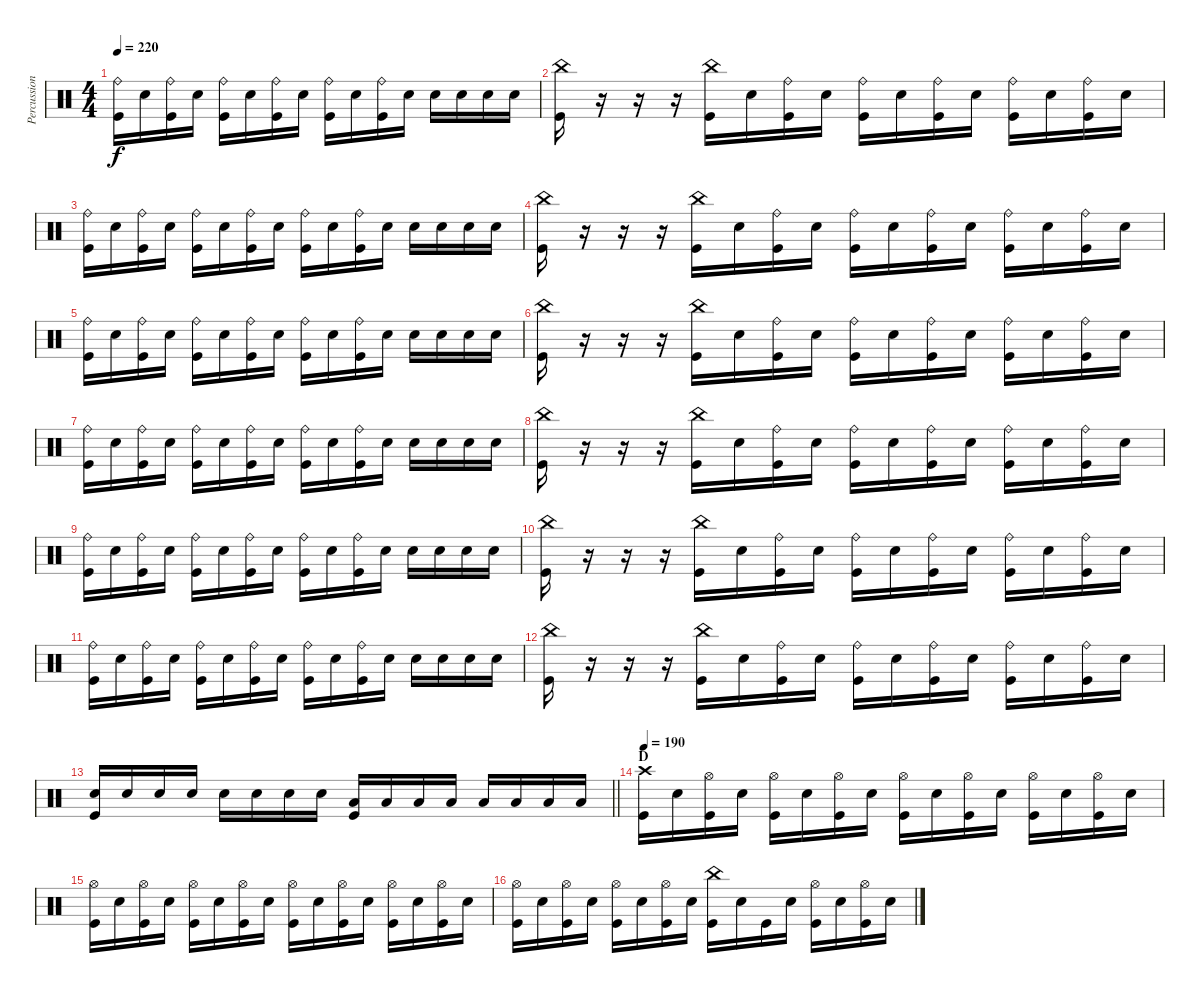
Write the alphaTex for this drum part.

\track ("Percussion" "Percussion") {instrument percussion}
\staff {score}
\articulation defaults
\ts (4 4)
\tempo 220
\clef neutral
\ks c
("Ride (bell)" "Kick (hit)").16{dy f} "Snare (hit) 2".16 ("Ride (bell)" "Kick (hit)").16 "Snare (hit) 2".16 ("Ride (bell)" "Kick (hit)").16 "Snare (hit) 2".16 ("Ride (bell)" "Kick (hit)").16 "Snare (hit) 2".16 ("Ride (bell)" "Kick (hit)").16 "Snare (hit) 2".16 ("Ride (bell)" "Kick (hit)").16 "Snare (hit) 2".16 "Snare (hit) 2".16 "Snare (hit) 2".16 "Snare (hit) 2".16 "Snare (hit) 2".16 |
("China (hit)" "Kick (hit)").16 r.16 r.16 r.16 ("China (hit)" "Kick (hit)").16 "Snare (hit) 2".16 ("Ride (bell)" "Kick (hit)").16 "Snare (hit) 2".16 ("Ride (bell)" "Kick (hit)").16 "Snare (hit) 2".16 ("Ride (bell)" "Kick (hit)").16 "Snare (hit) 2".16 ("Ride (bell)" "Kick (hit)").16 "Snare (hit) 2".16 ("Ride (bell)" "Kick (hit)").16 "Snare (hit) 2".16 |
("Ride (bell)" "Kick (hit)").16 "Snare (hit) 2".16 ("Ride (bell)" "Kick (hit)").16 "Snare (hit) 2".16 ("Ride (bell)" "Kick (hit)").16 "Snare (hit) 2".16 ("Ride (bell)" "Kick (hit)").16 "Snare (hit) 2".16 ("Ride (bell)" "Kick (hit)").16 "Snare (hit) 2".16 ("Ride (bell)" "Kick (hit)").16 "Snare (hit) 2".16 "Snare (hit) 2".16 "Snare (hit) 2".16 "Snare (hit) 2".16 "Snare (hit) 2".16 |
("China (hit)" "Kick (hit)").16 r.16 r.16 r.16 ("China (hit)" "Kick (hit)").16 "Snare (hit) 2".16 ("Ride (bell)" "Kick (hit)").16 "Snare (hit) 2".16 ("Ride (bell)" "Kick (hit)").16 "Snare (hit) 2".16 ("Ride (bell)" "Kick (hit)").16 "Snare (hit) 2".16 ("Ride (bell)" "Kick (hit)").16 "Snare (hit) 2".16 ("Ride (bell)" "Kick (hit)").16 "Snare (hit) 2".16 |
("Ride (bell)" "Kick (hit)").16 "Snare (hit) 2".16 ("Ride (bell)" "Kick (hit)").16 "Snare (hit) 2".16 ("Ride (bell)" "Kick (hit)").16 "Snare (hit) 2".16 ("Ride (bell)" "Kick (hit)").16 "Snare (hit) 2".16 ("Ride (bell)" "Kick (hit)").16 "Snare (hit) 2".16 ("Ride (bell)" "Kick (hit)").16 "Snare (hit) 2".16 "Snare (hit) 2".16 "Snare (hit) 2".16 "Snare (hit) 2".16 "Snare (hit) 2".16 |
("China (hit)" "Kick (hit)").16 r.16 r.16 r.16 ("China (hit)" "Kick (hit)").16 "Snare (hit) 2".16 ("Ride (bell)" "Kick (hit)").16 "Snare (hit) 2".16 ("Ride (bell)" "Kick (hit)").16 "Snare (hit) 2".16 ("Ride (bell)" "Kick (hit)").16 "Snare (hit) 2".16 ("Ride (bell)" "Kick (hit)").16 "Snare (hit) 2".16 ("Ride (bell)" "Kick (hit)").16 "Snare (hit) 2".16 |
("Ride (bell)" "Kick (hit)").16 "Snare (hit) 2".16 ("Ride (bell)" "Kick (hit)").16 "Snare (hit) 2".16 ("Ride (bell)" "Kick (hit)").16 "Snare (hit) 2".16 ("Ride (bell)" "Kick (hit)").16 "Snare (hit) 2".16 ("Ride (bell)" "Kick (hit)").16 "Snare (hit) 2".16 ("Ride (bell)" "Kick (hit)").16 "Snare (hit) 2".16 "Snare (hit) 2".16 "Snare (hit) 2".16 "Snare (hit) 2".16 "Snare (hit) 2".16 |
("China (hit)" "Kick (hit)").16 r.16 r.16 r.16 ("China (hit)" "Kick (hit)").16 "Snare (hit) 2".16 ("Ride (bell)" "Kick (hit)").16 "Snare (hit) 2".16 ("Ride (bell)" "Kick (hit)").16 "Snare (hit) 2".16 ("Ride (bell)" "Kick (hit)").16 "Snare (hit) 2".16 ("Ride (bell)" "Kick (hit)").16 "Snare (hit) 2".16 ("Ride (bell)" "Kick (hit)").16 "Snare (hit) 2".16 |
("Ride (bell)" "Kick (hit)").16 "Snare (hit) 2".16 ("Ride (bell)" "Kick (hit)").16 "Snare (hit) 2".16 ("Ride (bell)" "Kick (hit)").16 "Snare (hit) 2".16 ("Ride (bell)" "Kick (hit)").16 "Snare (hit) 2".16 ("Ride (bell)" "Kick (hit)").16 "Snare (hit) 2".16 ("Ride (bell)" "Kick (hit)").16 "Snare (hit) 2".16 "Snare (hit) 2".16 "Snare (hit) 2".16 "Snare (hit) 2".16 "Snare (hit) 2".16 |
("China (hit)" "Kick (hit)").16 r.16 r.16 r.16 ("China (hit)" "Kick (hit)").16 "Snare (hit) 2".16 ("Ride (bell)" "Kick (hit)").16 "Snare (hit) 2".16 ("Ride (bell)" "Kick (hit)").16 "Snare (hit) 2".16 ("Ride (bell)" "Kick (hit)").16 "Snare (hit) 2".16 ("Ride (bell)" "Kick (hit)").16 "Snare (hit) 2".16 ("Ride (bell)" "Kick (hit)").16 "Snare (hit) 2".16 |
("Ride (bell)" "Kick (hit)").16 "Snare (hit) 2".16 ("Ride (bell)" "Kick (hit)").16 "Snare (hit) 2".16 ("Ride (bell)" "Kick (hit)").16 "Snare (hit) 2".16 ("Ride (bell)" "Kick (hit)").16 "Snare (hit) 2".16 ("Ride (bell)" "Kick (hit)").16 "Snare (hit) 2".16 ("Ride (bell)" "Kick (hit)").16 "Snare (hit) 2".16 "Snare (hit) 2".16 "Snare (hit) 2".16 "Snare (hit) 2".16 "Snare (hit) 2".16 |
("China (hit)" "Kick (hit)").16 r.16 r.16 r.16 ("China (hit)" "Kick (hit)").16 "Snare (hit) 2".16 ("Ride (bell)" "Kick (hit)").16 "Snare (hit) 2".16 ("Ride (bell)" "Kick (hit)").16 "Snare (hit) 2".16 ("Ride (bell)" "Kick (hit)").16 "Snare (hit) 2".16 ("Ride (bell)" "Kick (hit)").16 "Snare (hit) 2".16 ("Ride (bell)" "Kick (hit)").16 "Snare (hit) 2".16 |
\barLineRight lightlight
("Snare (hit) 2" "Kick (hit)").16 "Snare (hit) 2".16 "Snare (hit) 2".16 "Snare (hit) 2".16 "Snare (hit) 2".16 "Snare (hit) 2".16 "Snare (hit) 2".16 "Snare (hit) 2".16 ("Low Tom (hit)" "Kick (hit)").16 "Low Tom (hit)".16 "Low Tom (hit)".16 "Low Tom (hit)".16 "Low Tom (hit)".16 "Low Tom (hit)".16 "Low Tom (hit)".16 "Low Tom (hit)".16 |
\section ("" "D")
\tempo 190
("Crash high (hit)" "Kick (hit)").16 "Snare (hit) 2".16 ("Hi-Hat (open)" "Kick (hit)").16 "Snare (hit) 2".16 ("Hi-Hat (open)" "Kick (hit)").16 "Snare (hit) 2".16 ("Hi-Hat (open)" "Kick (hit)").16 "Snare (hit) 2".16 ("Hi-Hat (open)" "Kick (hit)").16 "Snare (hit) 2".16 ("Hi-Hat (open)" "Kick (hit)").16 "Snare (hit) 2".16 ("Hi-Hat (open)" "Kick (hit)").16 "Snare (hit) 2".16 ("Hi-Hat (open)" "Kick (hit)").16 "Snare (hit) 2".16 |
("Hi-Hat (open)" "Kick (hit)").16 "Snare (hit) 2".16 ("Hi-Hat (open)" "Kick (hit)").16 "Snare (hit) 2".16 ("Hi-Hat (open)" "Kick (hit)").16 "Snare (hit) 2".16 ("Hi-Hat (open)" "Kick (hit)").16 "Snare (hit) 2".16 ("Hi-Hat (open)" "Kick (hit)").16 "Snare (hit) 2".16 ("Hi-Hat (open)" "Kick (hit)").16 "Snare (hit) 2".16 ("Hi-Hat (open)" "Kick (hit)").16 "Snare (hit) 2".16 ("Hi-Hat (open)" "Kick (hit)").16 "Snare (hit) 2".16 |
("Hi-Hat (open)" "Kick (hit)").16 "Snare (hit) 2".16 ("Hi-Hat (open)" "Kick (hit)").16 "Snare (hit) 2".16 ("Hi-Hat (open)" "Kick (hit)").16 "Snare (hit) 2".16 ("Hi-Hat (open)" "Kick (hit)").16 "Snare (hit) 2".16 ("China (hit)" "Kick (hit)").16 "Snare (hit) 2".16 "Kick (hit)".16 "Snare (hit) 2".16 ("Hi-Hat (open)" "Kick (hit)").16 "Snare (hit) 2".16 ("Hi-Hat (open)" "Kick (hit)").16 "Snare (hit) 2".16
